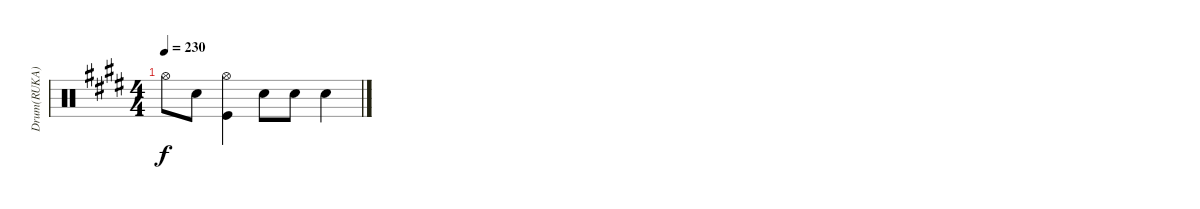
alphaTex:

\track ("Drum(RUKA)" "Drum(RUKA)") {instrument percussion}
\staff {score}
\articulation defaults
\ts (4 4)
\tempo 230
\clef neutral
\ks e "Hi-Hat (open)".8{dy f} "Electric Snare (hit)".8
("Hi-Hat (open)" "Kick (hit)").4 "Electric Snare (hit)".8 "Electric Snare (hit)".8 "Electric Snare (hit)".4
